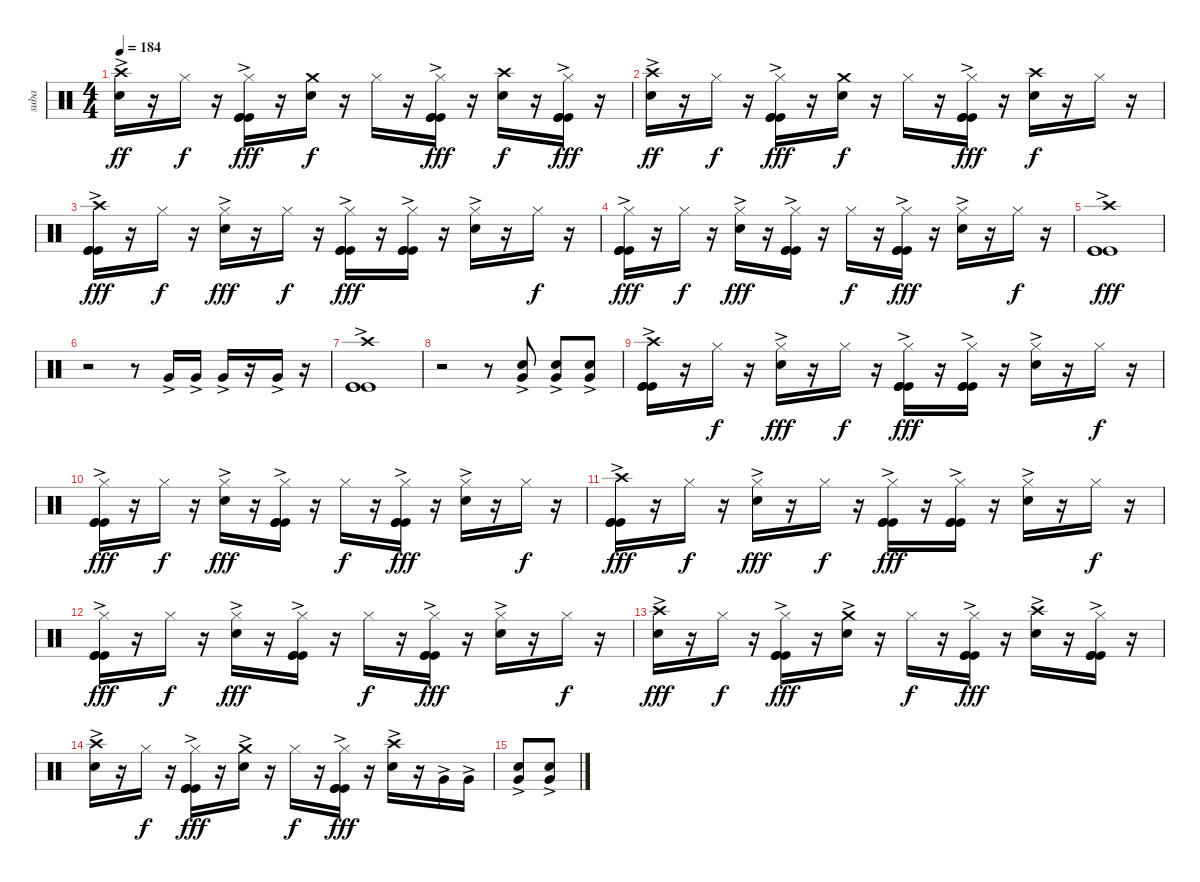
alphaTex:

\track ("suba" "suba") {instrument percussion}
\staff {score}
\articulation defaults
\ts (4 4)
\tempo 184
\clef neutral
\ks c
("Crash high (hit)"{ac} "Snare (hit) 2").16{dy ff} r.16 "Hi-Hat (closed)".16{dy f} r.16 ("Hi-Hat (closed)" "Kick (hit)"{ac} "Kick (hit)"{ac} "Kick (hit)"{ac}).16{dy fff} r.16 ("Crash medium (hit)" "Snare (hit) 2").16{dy f} r.16 "Hi-Hat (closed)".16 r.16 ("Hi-Hat (closed)" "Kick (hit)"{ac} "Kick (hit)"{ac} "Kick (hit)"{ac}).16{dy fff} r.16 ("Crash high (hit)" "Snare (hit) 2").16{dy f} r.16 ("Hi-Hat (closed)" "Kick (hit)"{ac} "Kick (hit)"{ac} "Kick (hit)"{ac}).16{dy fff} r.16 |
("Crash high (hit)"{ac} "Snare (hit) 2").16{dy ff} r.16 "Hi-Hat (closed)".16{dy f} r.16 ("Hi-Hat (closed)" "Kick (hit)"{ac} "Kick (hit)"{ac} "Kick (hit)"{ac}).16{dy fff} r.16 ("Crash medium (hit)" "Snare (hit) 2").16{dy f} r.16 "Hi-Hat (closed)".16 r.16 ("Hi-Hat (closed)" "Kick (hit)"{ac} "Kick (hit)"{ac} "Kick (hit)"{ac}).16{dy fff} r.16 ("Crash high (hit)" "Snare (hit) 2").16{dy f} r.16 "Hi-Hat (closed)".16 r.16 |
("Crash high (hit)"{ac} "Kick (hit)"{ac} "Kick (hit)"{ac} "Kick (hit)"{ac}).16{dy fff} r.16 "Hi-Hat (closed)".16{dy f} r.16 ("Hi-Hat (closed)" "Snare (hit) 2"{ac}).16{dy fff} r.16 "Hi-Hat (closed)".16{dy f} r.16 ("Hi-Hat (closed)" "Kick (hit)"{ac} "Kick (hit)"{ac} "Kick (hit)"{ac}).16{dy fff} r.16 ("Hi-Hat (closed)" "Kick (hit)"{ac} "Kick (hit)"{ac} "Kick (hit)"{ac}).16 r.16 ("Hi-Hat (closed)" "Snare (hit) 2"{ac}).16 r.16 "Hi-Hat (closed)".16{dy f} r.16 |
("Hi-Hat (closed)" "Kick (hit)"{ac} "Kick (hit)"{ac} "Kick (hit)"{ac}).16{dy fff} r.16 "Hi-Hat (closed)".16{dy f} r.16 ("Hi-Hat (closed)" "Snare (hit) 2"{ac}).16{dy fff} r.16 ("Hi-Hat (closed)" "Kick (hit)"{ac} "Kick (hit)"{ac} "Kick (hit)"{ac}).16 r.16 "Hi-Hat (closed)".16{dy f} r.16 ("Hi-Hat (closed)" "Kick (hit)"{ac} "Kick (hit)"{ac} "Kick (hit)"{ac}).16{dy fff} r.16 ("Hi-Hat (closed)" "Snare (hit) 2"{ac}).16 r.16 "Hi-Hat (closed)".16{dy f} r.16 |
("Crash high (hit)" "Kick (hit)"{ac} "Kick (hit)"{ac} "Kick (hit)"{ac}).1{dy fff} |
r.2 r.8 "Very Low Tom (hit)"{ac}.16 "Very Low Tom (hit)"{ac}.16 "Very Low Tom (hit)"{ac}.16 r.16 "Very Low Tom (hit)"{ac}.16 r.16 |
("Crash high (hit)" "Kick (hit)"{ac} "Kick (hit)"{ac} "Kick (hit)"{ac}).1 |
r.2 r.8 ("Snare (hit) 2"{ac} "Very Low Tom (hit)"{ac}).8 ("Snare (hit) 2"{ac} "Very Low Tom (hit)"{ac}).8 ("Snare (hit) 2"{ac} "Very Low Tom (hit)"{ac}).8 |
("Crash high (hit)"{ac} "Kick (hit)"{ac} "Kick (hit)"{ac} "Kick (hit)"{ac}).16 r.16 "Hi-Hat (closed)".16{dy f} r.16 ("Hi-Hat (closed)" "Snare (hit) 2"{ac}).16{dy fff} r.16 "Hi-Hat (closed)".16{dy f} r.16 ("Hi-Hat (closed)" "Kick (hit)"{ac} "Kick (hit)"{ac} "Kick (hit)"{ac}).16{dy fff} r.16 ("Hi-Hat (closed)" "Kick (hit)"{ac} "Kick (hit)"{ac} "Kick (hit)"{ac}).16 r.16 ("Hi-Hat (closed)" "Snare (hit) 2"{ac}).16 r.16 "Hi-Hat (closed)".16{dy f} r.16 |
("Hi-Hat (closed)" "Kick (hit)"{ac} "Kick (hit)"{ac} "Kick (hit)"{ac}).16{dy fff} r.16 "Hi-Hat (closed)".16{dy f} r.16 ("Hi-Hat (closed)" "Snare (hit) 2"{ac}).16{dy fff} r.16 ("Hi-Hat (closed)" "Kick (hit)"{ac} "Kick (hit)"{ac} "Kick (hit)"{ac}).16 r.16 "Hi-Hat (closed)".16{dy f} r.16 ("Hi-Hat (closed)" "Kick (hit)"{ac} "Kick (hit)"{ac} "Kick (hit)"{ac}).16{dy fff} r.16 ("Hi-Hat (closed)" "Snare (hit) 2"{ac}).16 r.16 "Hi-Hat (closed)".16{dy f} r.16 |
("Crash high (hit)"{ac} "Kick (hit)"{ac} "Kick (hit)"{ac} "Kick (hit)"{ac}).16{dy fff} r.16 "Hi-Hat (closed)".16{dy f} r.16 ("Hi-Hat (closed)" "Snare (hit) 2"{ac}).16{dy fff} r.16 "Hi-Hat (closed)".16{dy f} r.16 ("Hi-Hat (closed)" "Kick (hit)"{ac} "Kick (hit)"{ac} "Kick (hit)"{ac}).16{dy fff} r.16 ("Hi-Hat (closed)" "Kick (hit)"{ac} "Kick (hit)"{ac} "Kick (hit)"{ac}).16 r.16 ("Hi-Hat (closed)" "Snare (hit) 2"{ac}).16 r.16 "Hi-Hat (closed)".16{dy f} r.16 |
("Hi-Hat (closed)" "Kick (hit)"{ac} "Kick (hit)"{ac} "Kick (hit)"{ac}).16{dy fff} r.16 "Hi-Hat (closed)".16{dy f} r.16 ("Hi-Hat (closed)" "Snare (hit) 2"{ac}).16{dy fff} r.16 ("Hi-Hat (closed)" "Kick (hit)"{ac} "Kick (hit)"{ac} "Kick (hit)"{ac}).16 r.16 "Hi-Hat (closed)".16{dy f} r.16 ("Hi-Hat (closed)" "Kick (hit)"{ac} "Kick (hit)"{ac} "Kick (hit)"{ac}).16{dy fff} r.16 ("Hi-Hat (closed)" "Snare (hit) 2"{ac}).16 r.16 "Hi-Hat (closed)".16{dy f} r.16 |
("Crash high (hit)"{ac} "Snare (hit) 2"{ac}).16{dy fff} r.16 "Hi-Hat (closed)".16{dy f} r.16 ("Hi-Hat (closed)" "Kick (hit)"{ac} "Kick (hit)"{ac} "Kick (hit)"{ac}).16{dy fff} r.16 ("Crash medium (hit)"{ac} "Snare (hit) 2"{ac}).16 r.16 "Hi-Hat (closed)".16{dy f} r.16 ("Hi-Hat (closed)" "Kick (hit)"{ac} "Kick (hit)"{ac} "Kick (hit)"{ac}).16{dy fff} r.16 ("Crash high (hit)"{ac} "Snare (hit) 2"{ac}).16 r.16 ("Hi-Hat (closed)" "Kick (hit)"{ac} "Kick (hit)"{ac} "Kick (hit)"{ac}).16 r.16 |
("Crash high (hit)"{ac} "Snare (hit) 2"{ac}).16 r.16 "Hi-Hat (closed)".16{dy f} r.16 ("Hi-Hat (closed)" "Kick (hit)"{ac} "Kick (hit)"{ac} "Kick (hit)"{ac}).16{dy fff} r.16 ("Crash medium (hit)"{ac} "Snare (hit) 2"{ac}).16 r.16 "Hi-Hat (closed)".16{dy f} r.16 ("Hi-Hat (closed)" "Kick (hit)"{ac} "Kick (hit)"{ac} "Kick (hit)"{ac}).16{dy fff} r.16 ("Crash high (hit)"{ac} "Snare (hit) 2"{ac}).16 r.16 "Very Low Tom (hit)"{ac}.16 "Very Low Tom (hit)"{ac}.16 |
("Snare (hit) 2"{ac} "Very Low Tom (hit)"{ac}).8 ("Snare (hit) 2"{ac} "Very Low Tom (hit)"{ac}).8
